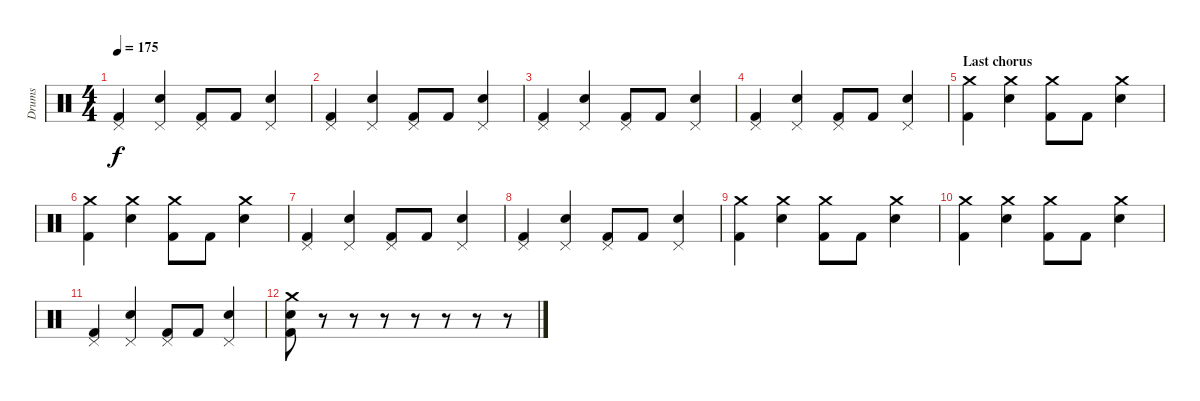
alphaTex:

\track ("Drums" "Drums") {instrument percussion}
\staff {score}
\articulation defaults
\ts (4 4)
\tempo 175
\clef neutral
\ks c
("Pedal Hi-Hat (hit)" "Kick (hit) 2").4{dy f} ("Pedal Hi-Hat (hit)" "Electric Snare (hit)").4 ("Pedal Hi-Hat (hit)" "Kick (hit) 2").8 "Kick (hit) 2".8 ("Pedal Hi-Hat (hit)" "Electric Snare (hit)").4 |
("Pedal Hi-Hat (hit)" "Kick (hit) 2").4 ("Pedal Hi-Hat (hit)" "Electric Snare (hit)").4 ("Pedal Hi-Hat (hit)" "Kick (hit) 2").8 "Kick (hit) 2".8 ("Pedal Hi-Hat (hit)" "Electric Snare (hit)").4 |
("Pedal Hi-Hat (hit)" "Kick (hit) 2").4 ("Pedal Hi-Hat (hit)" "Electric Snare (hit)").4 ("Pedal Hi-Hat (hit)" "Kick (hit) 2").8 "Kick (hit) 2".8 ("Pedal Hi-Hat (hit)" "Electric Snare (hit)").4 |
("Pedal Hi-Hat (hit)" "Kick (hit) 2").4 ("Pedal Hi-Hat (hit)" "Electric Snare (hit)").4 ("Pedal Hi-Hat (hit)" "Kick (hit) 2").8 "Kick (hit) 2".8 ("Pedal Hi-Hat (hit)" "Electric Snare (hit)").4 |
\section ("" "Last chorus")
("Crash medium (hit)" "Kick (hit) 2").4 ("Crash medium (hit)" "Electric Snare (hit)").4 ("Crash medium (hit)" "Kick (hit) 2").8 "Kick (hit) 2".8 ("Crash medium (hit)" "Electric Snare (hit)").4 |
("Crash medium (hit)" "Kick (hit) 2").4 ("Crash medium (hit)" "Electric Snare (hit)").4 ("Crash medium (hit)" "Kick (hit) 2").8 "Kick (hit) 2".8 ("Crash medium (hit)" "Electric Snare (hit)").4 |
("Pedal Hi-Hat (hit)" "Kick (hit) 2").4 ("Pedal Hi-Hat (hit)" "Electric Snare (hit)").4 ("Pedal Hi-Hat (hit)" "Kick (hit) 2").8 "Kick (hit) 2".8 ("Pedal Hi-Hat (hit)" "Electric Snare (hit)").4 |
("Pedal Hi-Hat (hit)" "Kick (hit) 2").4 ("Pedal Hi-Hat (hit)" "Electric Snare (hit)").4 ("Pedal Hi-Hat (hit)" "Kick (hit) 2").8 "Kick (hit) 2".8 ("Pedal Hi-Hat (hit)" "Electric Snare (hit)").4 |
("Crash medium (hit)" "Kick (hit) 2").4 ("Crash medium (hit)" "Electric Snare (hit)").4 ("Crash medium (hit)" "Kick (hit) 2").8 "Kick (hit) 2".8 ("Crash medium (hit)" "Electric Snare (hit)").4 |
("Crash medium (hit)" "Kick (hit) 2").4 ("Crash medium (hit)" "Electric Snare (hit)").4 ("Crash medium (hit)" "Kick (hit) 2").8 "Kick (hit) 2".8 ("Crash medium (hit)" "Electric Snare (hit)").4 |
("Pedal Hi-Hat (hit)" "Kick (hit) 2").4 ("Pedal Hi-Hat (hit)" "Electric Snare (hit)").4 ("Pedal Hi-Hat (hit)" "Kick (hit) 2").8 "Kick (hit) 2".8 ("Pedal Hi-Hat (hit)" "Electric Snare (hit)").4 |
("Crash medium (hit)" "Kick (hit) 2" "Electric Snare (hit)").8 r.8 r.8 r.8 r.8 r.8 r.8 r.8
